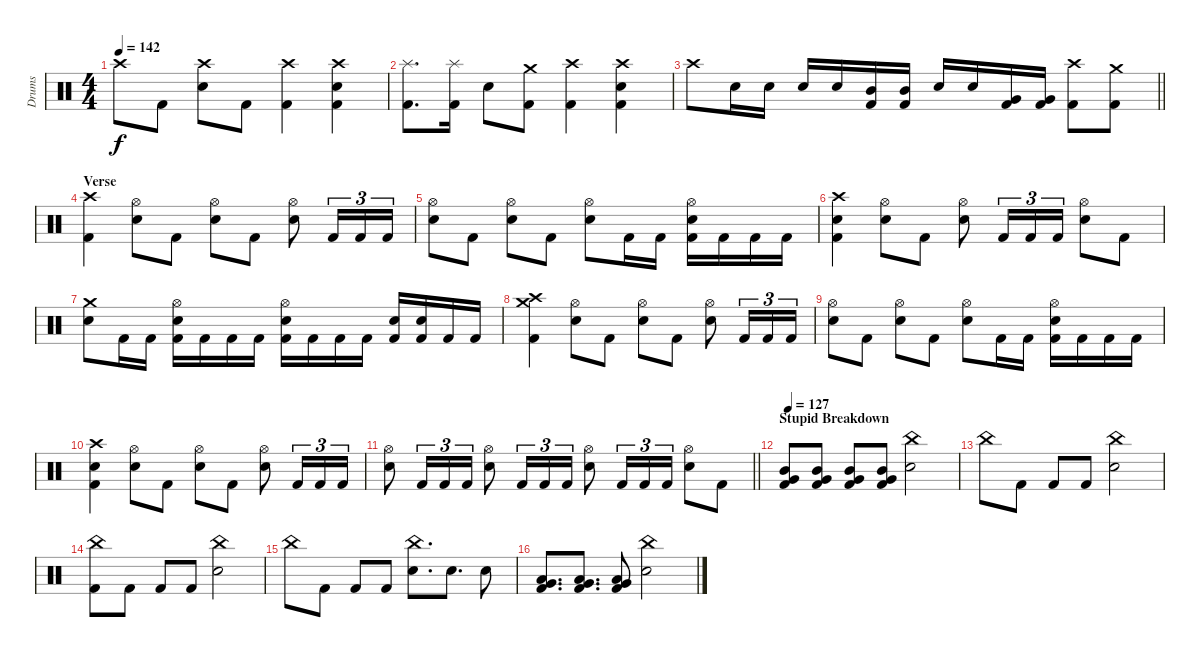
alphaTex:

\track ("Drums" "Drums") {instrument percussion}
\staff {score}
\articulation defaults
\ts (4 4)
\tempo 142
\clef neutral
\ks c "Crash high (hit)".8{dy f} "Kick (hit) 2".8
("Crash high (hit)" "Electric Snare (hit)").8 "Kick (hit) 2".8 ("Crash high (hit)" "Kick (hit) 2").4 ("Crash high (hit)" "Electric Snare (hit)" "Kick (hit) 2").4 |
("Splash (hit)" "Kick (hit) 2").8{d} ("Splash (hit)" "Kick (hit) 2").16 "Electric Snare (hit)".8 ("Crash medium (hit)" "Kick (hit) 2").8 ("Crash high (hit)" "Kick (hit) 2").4 ("Crash high (hit)" "Electric Snare (hit)" "Kick (hit) 2").4 |
\barLineRight lightlight "Crash high (hit)".8 "Electric Snare (hit)".16 "Electric Snare (hit)".16 "Electric Snare (hit)".16 "Electric Snare (hit)".16
("Mid Tom (hit)" "Kick (hit) 2").16 ("Mid Tom (hit)" "Kick (hit) 2").16 "Electric Snare (hit)".16 "Electric Snare (hit)".16 ("Very Low Tom (hit)" "Kick (hit) 2").16 ("Very Low Tom (hit)" "Kick (hit) 2").16 ("Crash high (hit)" "Kick (hit) 2").8 ("Crash medium (hit)" "Kick (hit) 2").8 |
\section ("" "Verse")
("Crash high (hit)" "Kick (hit) 2").4 ("Hi-Hat (open)" "Electric Snare (hit)").8 "Kick (hit) 2".8 ("Hi-Hat (open)" "Electric Snare (hit)").8 "Kick (hit) 2".8 ("Hi-Hat (open)" "Electric Snare (hit)").8 "Kick (hit) 2".16{tu (3 2)} "Kick (hit) 2".16{tu (3 2)} "Kick (hit) 2".16{tu (3 2)} |
("Hi-Hat (open)" "Electric Snare (hit)").8 "Kick (hit) 2".8 ("Hi-Hat (open)" "Electric Snare (hit)").8 "Kick (hit) 2".8 ("Hi-Hat (open)" "Electric Snare (hit)").8 "Kick (hit) 2".16 "Kick (hit) 2".16 ("Hi-Hat (open)" "Electric Snare (hit)" "Kick (hit) 2").16 "Kick (hit) 2".16 "Kick (hit) 2".16 "Kick (hit) 2".16 |
("Crash high (hit)" "Electric Snare (hit)" "Kick (hit) 2").4 ("Hi-Hat (open)" "Electric Snare (hit)").8 "Kick (hit) 2".8 ("Hi-Hat (open)" "Electric Snare (hit)").8 "Kick (hit) 2".16{tu (3 2)} "Kick (hit) 2".16{tu (3 2)} "Kick (hit) 2".16{tu (3 2)} ("Hi-Hat (open)" "Electric Snare (hit)").8 "Kick (hit) 2".8 |
("Crash medium (hit)" "Electric Snare (hit)").8 "Kick (hit) 2".16 "Kick (hit) 2".16 ("Hi-Hat (open)" "Electric Snare (hit)" "Kick (hit) 2").16 "Kick (hit) 2".16 "Kick (hit) 2".16 "Kick (hit) 2".16 ("Hi-Hat (open)" "Electric Snare (hit)" "Kick (hit) 2").16 "Kick (hit) 2".16 "Kick (hit) 2".16 "Kick (hit) 2".16 ("Electric Snare (hit)" "Kick (hit) 2").16 ("Electric Snare (hit)" "Kick (hit) 2").16 "Kick (hit) 2".16 "Kick (hit) 2".16 |
("Crash high (hit)" "Crash medium (hit)" "Kick (hit) 2").4 ("Hi-Hat (open)" "Electric Snare (hit)").8 "Kick (hit) 2".8 ("Hi-Hat (open)" "Electric Snare (hit)").8 "Kick (hit) 2".8 ("Hi-Hat (open)" "Electric Snare (hit)").8 "Kick (hit) 2".16{tu (3 2)} "Kick (hit) 2".16{tu (3 2)} "Kick (hit) 2".16{tu (3 2)} |
("Hi-Hat (open)" "Electric Snare (hit)").8 "Kick (hit) 2".8 ("Hi-Hat (open)" "Electric Snare (hit)").8 "Kick (hit) 2".8 ("Hi-Hat (open)" "Electric Snare (hit)").8 "Kick (hit) 2".16 "Kick (hit) 2".16 ("Hi-Hat (open)" "Electric Snare (hit)" "Kick (hit) 2").16 "Kick (hit) 2".16 "Kick (hit) 2".16 "Kick (hit) 2".16 |
("Crash high (hit)" "Electric Snare (hit)" "Kick (hit) 2").4 ("Hi-Hat (open)" "Electric Snare (hit)").8 "Kick (hit) 2".8 ("Hi-Hat (open)" "Electric Snare (hit)").8 "Kick (hit) 2".8 ("Hi-Hat (open)" "Electric Snare (hit)").8 "Kick (hit) 2".16{tu (3 2)} "Kick (hit) 2".16{tu (3 2)} "Kick (hit) 2".16{tu (3 2)} |
\barLineRight lightlight
("Hi-Hat (open)" "Electric Snare (hit)").8 "Kick (hit) 2".16{tu (3 2)} "Kick (hit) 2".16{tu (3 2)} "Kick (hit) 2".16{tu (3 2)} ("Hi-Hat (open)" "Electric Snare (hit)").8 "Kick (hit) 2".16{tu (3 2)} "Kick (hit) 2".16{tu (3 2)} "Kick (hit) 2".16{tu (3 2)} ("Hi-Hat (open)" "Electric Snare (hit)").8 "Kick (hit) 2".16{tu (3 2)} "Kick (hit) 2".16{tu (3 2)} "Kick (hit) 2".16{tu (3 2)} ("Hi-Hat (open)" "Electric Snare (hit)").8 "Kick (hit) 2".8 |
\section ("" "Stupid Breakdown")
\tempo 127
("Mid Tom (hit)" "Very Low Tom (hit)" "Kick (hit) 2").8 ("Mid Tom (hit)" "Very Low Tom (hit)" "Kick (hit) 2").8 ("Mid Tom (hit)" "Very Low Tom (hit)" "Kick (hit) 2").8 ("Mid Tom (hit)" "Very Low Tom (hit)" "Kick (hit) 2").8 ("China (hit)" "Electric Snare (hit)").2 |
"China (hit)".8 "Kick (hit) 2".8 "Kick (hit) 2".8 "Kick (hit) 2".8 ("China (hit)" "Electric Snare (hit)").2 |
("China (hit)" "Kick (hit) 2").8 "Kick (hit) 2".8 "Kick (hit) 2".8 "Kick (hit) 2".8 ("China (hit)" "Electric Snare (hit)").2 |
"China (hit)".8 "Kick (hit) 2".8 "Kick (hit) 2".8 "Kick (hit) 2".8 ("China (hit)" "Electric Snare (hit)").8{d} "Electric Snare (hit)".8{d} "Electric Snare (hit)".8 |
("Low Floor Tom (hit)" "Very Low Tom (hit)" "Kick (hit) 2").8{d} ("Low Floor Tom (hit)" "Very Low Tom (hit)" "Kick (hit) 2").8{d} ("Low Floor Tom (hit)" "Very Low Tom (hit)" "Kick (hit) 2").8 ("China (hit)" "Electric Snare (hit)").2
